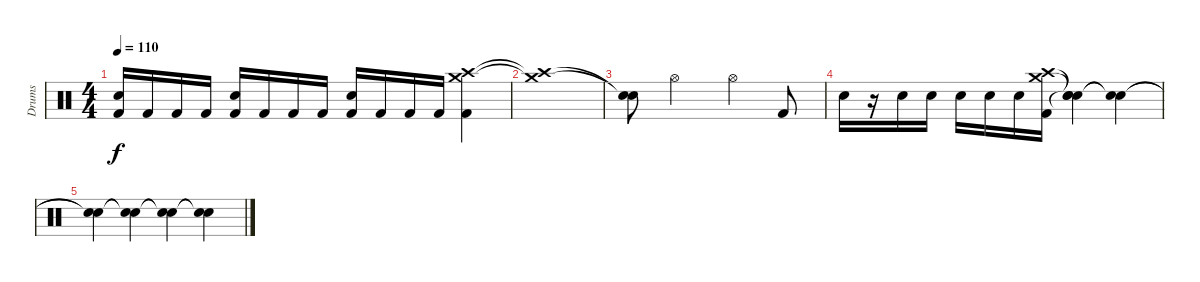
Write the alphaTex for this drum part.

\track ("Drums" "Drums") {instrument percussion}
\staff {score}
\articulation defaults
\ts (4 4)
\tempo 110
\clef neutral
\ks c
("Snare (hit) 2" "Kick (hit) 2").16{dy f} "Kick (hit) 2".16 "Kick (hit) 2".16 "Kick (hit) 2".16 ("Snare (hit) 2" "Kick (hit) 2").16 "Kick (hit) 2".16 "Kick (hit) 2".16 "Kick (hit) 2".16 ("Snare (hit) 2" "Kick (hit) 2").16 "Kick (hit) 2".16 "Kick (hit) 2".16 "Kick (hit) 2".16 ("Crash high (hit)" "Crash medium (hit)" "Kick (hit) 2").4 |
("Crash high (hit)"{t} "Crash medium (hit)"{t}).1 |
("Snare (hit)"{t} "Snare (hit)"{t}).8 "Hi-Hat (open)".2 "Hi-Hat (open)".4 "Kick (hit) 2".8 |
"Snare (hit) 2".16 r.16 "Snare (hit) 2".16 "Snare (hit) 2".16 "Snare (hit) 2".16 "Snare (hit) 2".16 "Snare (hit) 2".16 ("Crash high (hit)" "Crash medium (hit)" "Kick (hit) 2").16 ("Snare (hit)"{t} "Snare (hit)"{t} "Snare (hit)"{t}).4 ("Snare (hit)"{t} "Snare (hit)"{t}).4 |
("Snare (hit)"{t} "Snare (hit)"{t}).4 ("Snare (hit)"{t} "Snare (hit)"{t}).4 ("Snare (hit)"{t} "Snare (hit)"{t}).4 ("Snare (hit)"{t} "Snare (hit)"{t}).4
